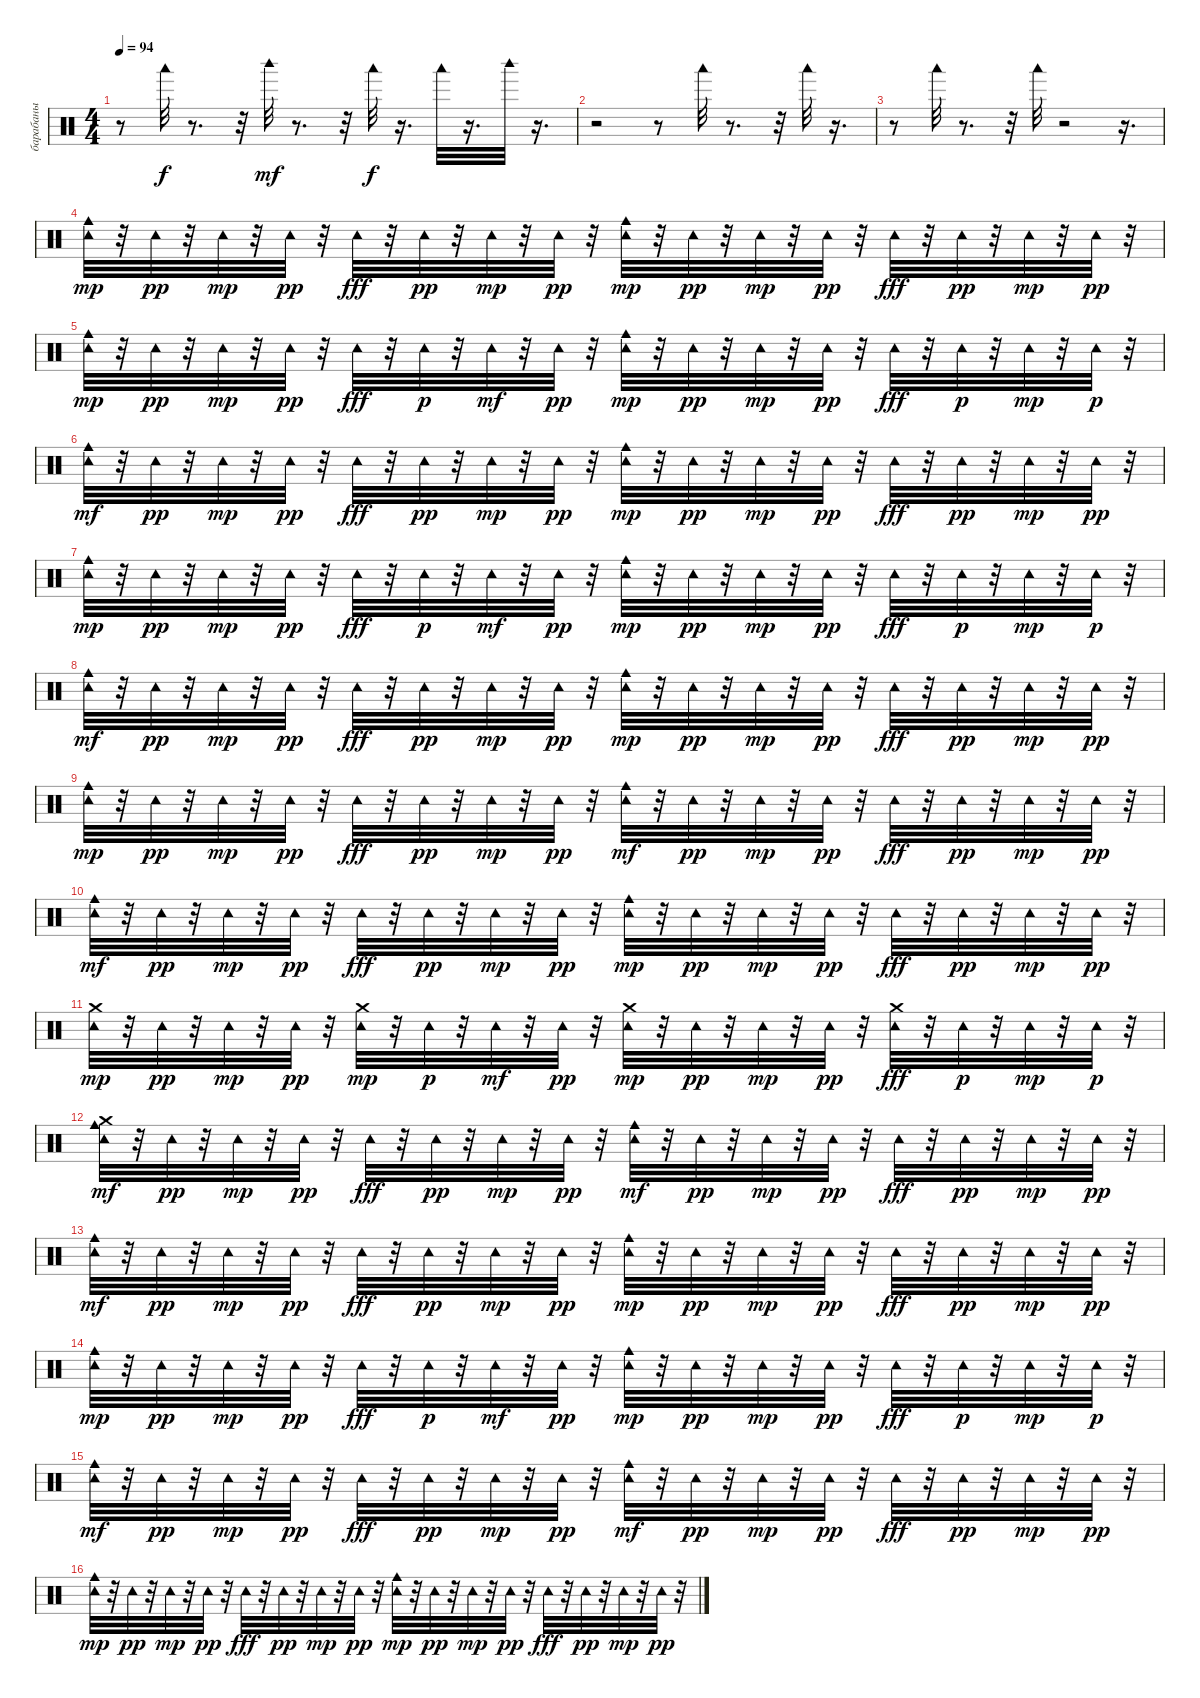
\track ("барабаны" "барабаны") {instrument percussion}
\staff {score}
\articulation defaults
\ts (4 4)
\tempo 94
\clef neutral
\ks c
r.8{dy f} "Woodblock low (hit)".32 r.8{d} r.32 "Woodblock high (hit)".32{dy mf} r.8{d} r.32 "Woodblock low (hit)".32{dy f} r.16{d} "Woodblock low (hit)".32 r.16{d} "Woodblock high (hit)".32 r.16{d} |
r.2 r.8 "Woodblock low (hit)".32 r.8{d} r.32 "Woodblock low (hit)".32 r.16{d} |
r.8 "Woodblock low (hit)".32 r.8{d} r.32 "Woodblock low (hit)".32 r.2 r.16{d} |
("Cowbell medium (hit)" "Tambourine (hit)").32{dy mp} r.32 "Tambourine (hit)".32{dy pp} r.32 "Tambourine (hit)".32{dy mp} r.32 "Tambourine (hit)".32{dy pp} r.32 "Tambourine (hit)".32{dy fff} r.32 "Tambourine (hit)".32{dy pp} r.32 "Tambourine (hit)".32{dy mp} r.32 "Tambourine (hit)".32{dy pp} r.32 ("Cowbell medium (hit)" "Tambourine (hit)").32{dy mp} r.32 "Tambourine (hit)".32{dy pp} r.32 "Tambourine (hit)".32{dy mp} r.32 "Tambourine (hit)".32{dy pp} r.32 "Tambourine (hit)".32{dy fff} r.32 "Tambourine (hit)".32{dy pp} r.32 "Tambourine (hit)".32{dy mp} r.32 "Tambourine (hit)".32{dy pp} r.32 |
("Tambourine (hit)" "Cowbell medium (hit)").32{dy mp} r.32 "Tambourine (hit)".32{dy pp} r.32 "Tambourine (hit)".32{dy mp} r.32 "Tambourine (hit)".32{dy pp} r.32 "Tambourine (hit)".32{dy fff} r.32 "Tambourine (hit)".32{dy p} r.32 "Tambourine (hit)".32{dy mf} r.32 "Tambourine (hit)".32{dy pp} r.32 ("Cowbell medium (hit)" "Tambourine (hit)").32{dy mp} r.32 "Tambourine (hit)".32{dy pp} r.32 "Tambourine (hit)".32{dy mp} r.32 "Tambourine (hit)".32{dy pp} r.32 "Tambourine (hit)".32{dy fff} r.32 "Tambourine (hit)".32{dy p} r.32 "Tambourine (hit)".32{dy mp} r.32 "Tambourine (hit)".32{dy p} r.32 |
("Cowbell medium (hit)" "Tambourine (hit)").32{dy mf} r.32 "Tambourine (hit)".32{dy pp} r.32 "Tambourine (hit)".32{dy mp} r.32 "Tambourine (hit)".32{dy pp} r.32 "Tambourine (hit)".32{dy fff} r.32 "Tambourine (hit)".32{dy pp} r.32 "Tambourine (hit)".32{dy mp} r.32 "Tambourine (hit)".32{dy pp} r.32 ("Cowbell medium (hit)" "Tambourine (hit)").32{dy mp} r.32 "Tambourine (hit)".32{dy pp} r.32 "Tambourine (hit)".32{dy mp} r.32 "Tambourine (hit)".32{dy pp} r.32 "Tambourine (hit)".32{dy fff} r.32 "Tambourine (hit)".32{dy pp} r.32 "Tambourine (hit)".32{dy mp} r.32 "Tambourine (hit)".32{dy pp} r.32 |
("Cowbell medium (hit)" "Tambourine (hit)").32{dy mp} r.32 "Tambourine (hit)".32{dy pp} r.32 "Tambourine (hit)".32{dy mp} r.32 "Tambourine (hit)".32{dy pp} r.32 "Tambourine (hit)".32{dy fff} r.32 "Tambourine (hit)".32{dy p} r.32 "Tambourine (hit)".32{dy mf} r.32 "Tambourine (hit)".32{dy pp} r.32 ("Tambourine (hit)" "Cowbell medium (hit)").32{dy mp} r.32 "Tambourine (hit)".32{dy pp} r.32 "Tambourine (hit)".32{dy mp} r.32 "Tambourine (hit)".32{dy pp} r.32 "Tambourine (hit)".32{dy fff} r.32 "Tambourine (hit)".32{dy p} r.32 "Tambourine (hit)".32{dy mp} r.32 "Tambourine (hit)".32{dy p} r.32 |
("Tambourine (hit)" "Cowbell medium (hit)").32{dy mf} r.32 "Tambourine (hit)".32{dy pp} r.32 "Tambourine (hit)".32{dy mp} r.32 "Tambourine (hit)".32{dy pp} r.32 "Tambourine (hit)".32{dy fff} r.32 "Tambourine (hit)".32{dy pp} r.32 "Tambourine (hit)".32{dy mp} r.32 "Tambourine (hit)".32{dy pp} r.32 ("Cowbell medium (hit)" "Tambourine (hit)").32{dy mp} r.32 "Tambourine (hit)".32{dy pp} r.32 "Tambourine (hit)".32{dy mp} r.32 "Tambourine (hit)".32{dy pp} r.32 "Tambourine (hit)".32{dy fff} r.32 "Tambourine (hit)".32{dy pp} r.32 "Tambourine (hit)".32{dy mp} r.32 "Tambourine (hit)".32{dy pp} r.32 |
("Cowbell medium (hit)" "Tambourine (hit)").32{dy mp} r.32 "Tambourine (hit)".32{dy pp} r.32 "Tambourine (hit)".32{dy mp} r.32 "Tambourine (hit)".32{dy pp} r.32 "Tambourine (hit)".32{dy fff} r.32 "Tambourine (hit)".32{dy pp} r.32 "Tambourine (hit)".32{dy mp} r.32 "Tambourine (hit)".32{dy pp} r.32 ("Tambourine (hit)" "Cowbell medium (hit)").32{dy mf} r.32 "Tambourine (hit)".32{dy pp} r.32 "Tambourine (hit)".32{dy mp} r.32 "Tambourine (hit)".32{dy pp} r.32 "Tambourine (hit)".32{dy fff} r.32 "Tambourine (hit)".32{dy pp} r.32 "Tambourine (hit)".32{dy mp} r.32 "Tambourine (hit)".32{dy pp} r.32 |
("Tambourine (hit)" "Cowbell medium (hit)").32{dy mf} r.32 "Tambourine (hit)".32{dy pp} r.32 "Tambourine (hit)".32{dy mp} r.32 "Tambourine (hit)".32{dy pp} r.32 "Tambourine (hit)".32{dy fff} r.32 "Tambourine (hit)".32{dy pp} r.32 "Tambourine (hit)".32{dy mp} r.32 "Tambourine (hit)".32{dy pp} r.32 ("Cowbell medium (hit)" "Tambourine (hit)").32{dy mp} r.32 "Tambourine (hit)".32{dy pp} r.32 "Tambourine (hit)".32{dy mp} r.32 "Tambourine (hit)".32{dy pp} r.32 "Tambourine (hit)".32{dy fff} r.32 "Tambourine (hit)".32{dy pp} r.32 "Tambourine (hit)".32{dy mp} r.32 "Tambourine (hit)".32{dy pp} r.32 |
("Crash medium (hit)" "Tambourine (hit)").32{dy mp} r.32 "Tambourine (hit)".32{dy pp} r.32 "Tambourine (hit)".32{dy mp} r.32 "Tambourine (hit)".32{dy pp} r.32 ("Crash medium (hit)" "Tambourine (hit)").32{dy mp} r.32 "Tambourine (hit)".32{dy p} r.32 "Tambourine (hit)".32{dy mf} r.32 "Tambourine (hit)".32{dy pp} r.32 ("Crash medium (hit)" "Tambourine (hit)").32{dy mp} r.32 "Tambourine (hit)".32{dy pp} r.32 "Tambourine (hit)".32{dy mp} r.32 "Tambourine (hit)".32{dy pp} r.32 ("Crash medium (hit)" "Tambourine (hit)").32{dy fff} r.32 "Tambourine (hit)".32{dy p} r.32 "Tambourine (hit)".32{dy mp} r.32 "Tambourine (hit)".32{dy p} r.32 |
("Crash medium (hit)" "Tambourine (hit)" "Cowbell medium (hit)").32{dy mf} r.32 "Tambourine (hit)".32{dy pp} r.32 "Tambourine (hit)".32{dy mp} r.32 "Tambourine (hit)".32{dy pp} r.32 "Tambourine (hit)".32{dy fff} r.32 "Tambourine (hit)".32{dy pp} r.32 "Tambourine (hit)".32{dy mp} r.32 "Tambourine (hit)".32{dy pp} r.32 ("Tambourine (hit)" "Cowbell medium (hit)").32{dy mf} r.32 "Tambourine (hit)".32{dy pp} r.32 "Tambourine (hit)".32{dy mp} r.32 "Tambourine (hit)".32{dy pp} r.32 "Tambourine (hit)".32{dy fff} r.32 "Tambourine (hit)".32{dy pp} r.32 "Tambourine (hit)".32{dy mp} r.32 "Tambourine (hit)".32{dy pp} r.32 |
("Tambourine (hit)" "Cowbell medium (hit)").32{dy mf} r.32 "Tambourine (hit)".32{dy pp} r.32 "Tambourine (hit)".32{dy mp} r.32 "Tambourine (hit)".32{dy pp} r.32 "Tambourine (hit)".32{dy fff} r.32 "Tambourine (hit)".32{dy pp} r.32 "Tambourine (hit)".32{dy mp} r.32 "Tambourine (hit)".32{dy pp} r.32 ("Cowbell medium (hit)" "Tambourine (hit)").32{dy mp} r.32 "Tambourine (hit)".32{dy pp} r.32 "Tambourine (hit)".32{dy mp} r.32 "Tambourine (hit)".32{dy pp} r.32 "Tambourine (hit)".32{dy fff} r.32 "Tambourine (hit)".32{dy pp} r.32 "Tambourine (hit)".32{dy mp} r.32 "Tambourine (hit)".32{dy pp} r.32 |
("Tambourine (hit)" "Cowbell medium (hit)").32{dy mp} r.32 "Tambourine (hit)".32{dy pp} r.32 "Tambourine (hit)".32{dy mp} r.32 "Tambourine (hit)".32{dy pp} r.32 "Tambourine (hit)".32{dy fff} r.32 "Tambourine (hit)".32{dy p} r.32 "Tambourine (hit)".32{dy mf} r.32 "Tambourine (hit)".32{dy pp} r.32 ("Cowbell medium (hit)" "Tambourine (hit)").32{dy mp} r.32 "Tambourine (hit)".32{dy pp} r.32 "Tambourine (hit)".32{dy mp} r.32 "Tambourine (hit)".32{dy pp} r.32 "Tambourine (hit)".32{dy fff} r.32 "Tambourine (hit)".32{dy p} r.32 "Tambourine (hit)".32{dy mp} r.32 "Tambourine (hit)".32{dy p} r.32 |
("Tambourine (hit)" "Cowbell medium (hit)").32{dy mf} r.32 "Tambourine (hit)".32{dy pp} r.32 "Tambourine (hit)".32{dy mp} r.32 "Tambourine (hit)".32{dy pp} r.32 "Tambourine (hit)".32{dy fff} r.32 "Tambourine (hit)".32{dy pp} r.32 "Tambourine (hit)".32{dy mp} r.32 "Tambourine (hit)".32{dy pp} r.32 ("Tambourine (hit)" "Cowbell medium (hit)").32{dy mf} r.32 "Tambourine (hit)".32{dy pp} r.32 "Tambourine (hit)".32{dy mp} r.32 "Tambourine (hit)".32{dy pp} r.32 "Tambourine (hit)".32{dy fff} r.32 "Tambourine (hit)".32{dy pp} r.32 "Tambourine (hit)".32{dy mp} r.32 "Tambourine (hit)".32{dy pp} r.32 |
("Cowbell medium (hit)" "Tambourine (hit)").32{dy mp} r.32 "Tambourine (hit)".32{dy pp} r.32 "Tambourine (hit)".32{dy mp} r.32 "Tambourine (hit)".32{dy pp} r.32 "Tambourine (hit)".32{dy fff} r.32 "Tambourine (hit)".32{dy pp} r.32 "Tambourine (hit)".32{dy mp} r.32 "Tambourine (hit)".32{dy pp} r.32 ("Cowbell medium (hit)" "Tambourine (hit)").32{dy mp} r.32 "Tambourine (hit)".32{dy pp} r.32 "Tambourine (hit)".32{dy mp} r.32 "Tambourine (hit)".32{dy pp} r.32 "Tambourine (hit)".32{dy fff} r.32 "Tambourine (hit)".32{dy pp} r.32 "Tambourine (hit)".32{dy mp} r.32 "Tambourine (hit)".32{dy pp} r.32
